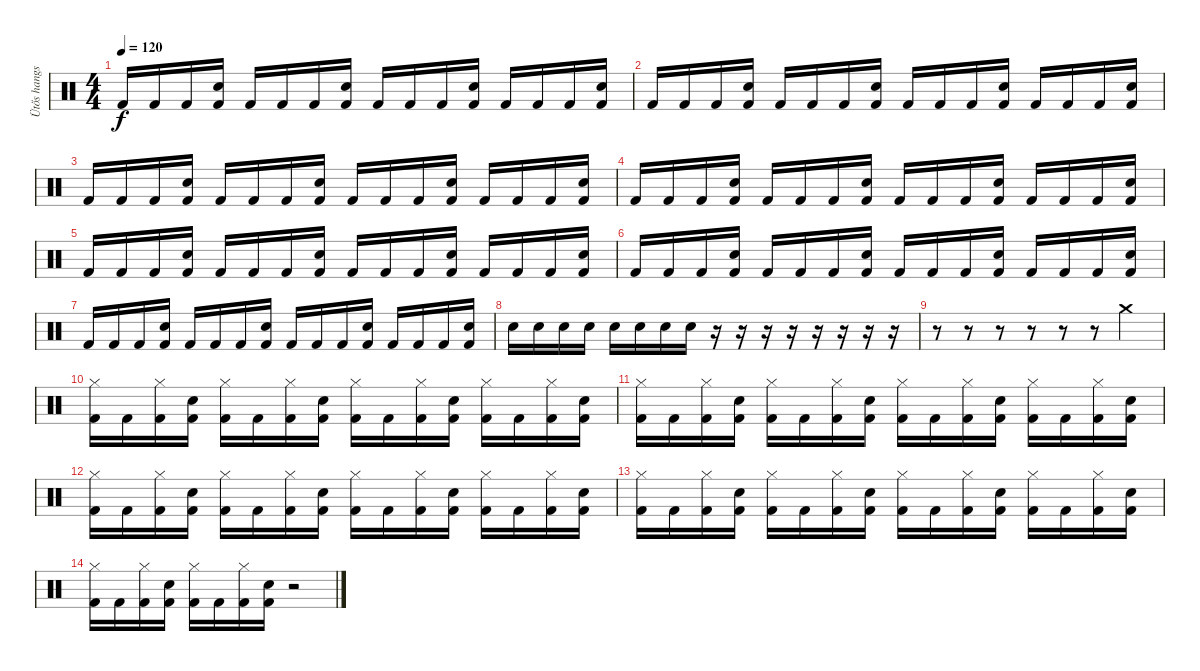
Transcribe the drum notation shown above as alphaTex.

\track ("Ütős hangszer" "Ütős hangs") {instrument percussion}
\staff {score}
\articulation defaults
\ts (4 4)
\tempo 120
\clef neutral
\ks c "Kick (hit) 2".16{dy f} "Kick (hit) 2".16 "Kick (hit) 2".16
("Snare (hit) 2" "Kick (hit) 2").16 "Kick (hit) 2".16 "Kick (hit) 2".16 "Kick (hit) 2".16 ("Snare (hit) 2" "Kick (hit) 2").16 "Kick (hit) 2".16 "Kick (hit) 2".16 "Kick (hit) 2".16 ("Snare (hit) 2" "Kick (hit) 2").16 "Kick (hit) 2".16 "Kick (hit) 2".16 "Kick (hit) 2".16 ("Snare (hit) 2" "Kick (hit) 2").16 |
"Kick (hit) 2".16 "Kick (hit) 2".16 "Kick (hit) 2".16 ("Snare (hit) 2" "Kick (hit) 2").16 "Kick (hit) 2".16 "Kick (hit) 2".16 "Kick (hit) 2".16 ("Snare (hit) 2" "Kick (hit) 2").16 "Kick (hit) 2".16 "Kick (hit) 2".16 "Kick (hit) 2".16 ("Snare (hit) 2" "Kick (hit) 2").16 "Kick (hit) 2".16 "Kick (hit) 2".16 "Kick (hit) 2".16 ("Snare (hit) 2" "Kick (hit) 2").16 |
"Kick (hit) 2".16 "Kick (hit) 2".16 "Kick (hit) 2".16 ("Snare (hit) 2" "Kick (hit) 2").16 "Kick (hit) 2".16 "Kick (hit) 2".16 "Kick (hit) 2".16 ("Snare (hit) 2" "Kick (hit) 2").16 "Kick (hit) 2".16 "Kick (hit) 2".16 "Kick (hit) 2".16 ("Snare (hit) 2" "Kick (hit) 2").16 "Kick (hit) 2".16 "Kick (hit) 2".16 "Kick (hit) 2".16 ("Snare (hit) 2" "Kick (hit) 2").16 |
"Kick (hit) 2".16 "Kick (hit) 2".16 "Kick (hit) 2".16 ("Snare (hit) 2" "Kick (hit) 2").16 "Kick (hit) 2".16 "Kick (hit) 2".16 "Kick (hit) 2".16 ("Snare (hit) 2" "Kick (hit) 2").16 "Kick (hit) 2".16 "Kick (hit) 2".16 "Kick (hit) 2".16 ("Snare (hit) 2" "Kick (hit) 2").16 "Kick (hit) 2".16 "Kick (hit) 2".16 "Kick (hit) 2".16 ("Snare (hit) 2" "Kick (hit) 2").16 |
"Kick (hit) 2".16 "Kick (hit) 2".16 "Kick (hit) 2".16 ("Snare (hit) 2" "Kick (hit) 2").16 "Kick (hit) 2".16 "Kick (hit) 2".16 "Kick (hit) 2".16 ("Snare (hit) 2" "Kick (hit) 2").16 "Kick (hit) 2".16 "Kick (hit) 2".16 "Kick (hit) 2".16 ("Snare (hit) 2" "Kick (hit) 2").16 "Kick (hit) 2".16 "Kick (hit) 2".16 "Kick (hit) 2".16 ("Snare (hit) 2" "Kick (hit) 2").16 |
"Kick (hit) 2".16 "Kick (hit) 2".16 "Kick (hit) 2".16 ("Snare (hit) 2" "Kick (hit) 2").16 "Kick (hit) 2".16 "Kick (hit) 2".16 "Kick (hit) 2".16 ("Snare (hit) 2" "Kick (hit) 2").16 "Kick (hit) 2".16 "Kick (hit) 2".16 "Kick (hit) 2".16 ("Snare (hit) 2" "Kick (hit) 2").16 "Kick (hit) 2".16 "Kick (hit) 2".16 "Kick (hit) 2".16 ("Snare (hit) 2" "Kick (hit) 2").16 |
"Kick (hit) 2".16 "Kick (hit) 2".16 "Kick (hit) 2".16 ("Snare (hit) 2" "Kick (hit) 2").16 "Kick (hit) 2".16 "Kick (hit) 2".16 "Kick (hit) 2".16 ("Snare (hit) 2" "Kick (hit) 2").16 "Kick (hit) 2".16 "Kick (hit) 2".16 "Kick (hit) 2".16 ("Snare (hit) 2" "Kick (hit) 2").16 "Kick (hit) 2".16 "Kick (hit) 2".16 "Kick (hit) 2".16 ("Snare (hit) 2" "Kick (hit) 2").16 |
"Snare (hit) 2".16 "Snare (hit) 2".16 "Snare (hit) 2".16 "Snare (hit) 2".16 "Snare (hit) 2".16 "Snare (hit) 2".16 "Snare (hit) 2".16 "Snare (hit) 2".16 r.16 r.16 r.16 r.16 r.16 r.16 r.16 r.16 |
r.8 r.8 r.8 r.8 r.8 r.8 "Crash medium (hit)".4 |
("Hi-Hat (closed)" "Kick (hit) 2").16 "Kick (hit) 2".16 ("Hi-Hat (closed)" "Kick (hit) 2").16 ("Snare (hit) 2" "Kick (hit) 2").16 ("Hi-Hat (closed)" "Kick (hit) 2").16 "Kick (hit) 2".16 ("Hi-Hat (closed)" "Kick (hit) 2").16 ("Snare (hit) 2" "Kick (hit) 2").16 ("Hi-Hat (closed)" "Kick (hit) 2").16 "Kick (hit) 2".16 ("Hi-Hat (closed)" "Kick (hit) 2").16 ("Snare (hit) 2" "Kick (hit) 2").16 ("Hi-Hat (closed)" "Kick (hit) 2").16 "Kick (hit) 2".16 ("Hi-Hat (closed)" "Kick (hit) 2").16 ("Snare (hit) 2" "Kick (hit) 2").16 |
("Hi-Hat (closed)" "Kick (hit) 2").16 "Kick (hit) 2".16 ("Hi-Hat (closed)" "Kick (hit) 2").16 ("Snare (hit) 2" "Kick (hit) 2").16 ("Hi-Hat (closed)" "Kick (hit) 2").16 "Kick (hit) 2".16 ("Hi-Hat (closed)" "Kick (hit) 2").16 ("Snare (hit) 2" "Kick (hit) 2").16 ("Hi-Hat (closed)" "Kick (hit) 2").16 "Kick (hit) 2".16 ("Hi-Hat (closed)" "Kick (hit) 2").16 ("Snare (hit) 2" "Kick (hit) 2").16 ("Hi-Hat (closed)" "Kick (hit) 2").16 "Kick (hit) 2".16 ("Hi-Hat (closed)" "Kick (hit) 2").16 ("Snare (hit) 2" "Kick (hit) 2").16 |
("Hi-Hat (closed)" "Kick (hit) 2").16 "Kick (hit) 2".16 ("Hi-Hat (closed)" "Kick (hit) 2").16 ("Snare (hit) 2" "Kick (hit) 2").16 ("Hi-Hat (closed)" "Kick (hit) 2").16 "Kick (hit) 2".16 ("Hi-Hat (closed)" "Kick (hit) 2").16 ("Snare (hit) 2" "Kick (hit) 2").16 ("Hi-Hat (closed)" "Kick (hit) 2").16 "Kick (hit) 2".16 ("Hi-Hat (closed)" "Kick (hit) 2").16 ("Snare (hit) 2" "Kick (hit) 2").16 ("Hi-Hat (closed)" "Kick (hit) 2").16 "Kick (hit) 2".16 ("Hi-Hat (closed)" "Kick (hit) 2").16 ("Snare (hit) 2" "Kick (hit) 2").16 |
("Hi-Hat (closed)" "Kick (hit) 2").16 "Kick (hit) 2".16 ("Hi-Hat (closed)" "Kick (hit) 2").16 ("Snare (hit) 2" "Kick (hit) 2").16 ("Hi-Hat (closed)" "Kick (hit) 2").16 "Kick (hit) 2".16 ("Hi-Hat (closed)" "Kick (hit) 2").16 ("Snare (hit) 2" "Kick (hit) 2").16 ("Hi-Hat (closed)" "Kick (hit) 2").16 "Kick (hit) 2".16 ("Hi-Hat (closed)" "Kick (hit) 2").16 ("Snare (hit) 2" "Kick (hit) 2").16 ("Hi-Hat (closed)" "Kick (hit) 2").16 "Kick (hit) 2".16 ("Hi-Hat (closed)" "Kick (hit) 2").16 ("Snare (hit) 2" "Kick (hit) 2").16 |
("Hi-Hat (closed)" "Kick (hit) 2").16 "Kick (hit) 2".16 ("Hi-Hat (closed)" "Kick (hit) 2").16 ("Snare (hit) 2" "Kick (hit) 2").16 ("Hi-Hat (closed)" "Kick (hit) 2").16 "Kick (hit) 2".16 ("Hi-Hat (closed)" "Kick (hit) 2").16 ("Snare (hit) 2" "Kick (hit) 2").16 r.2
